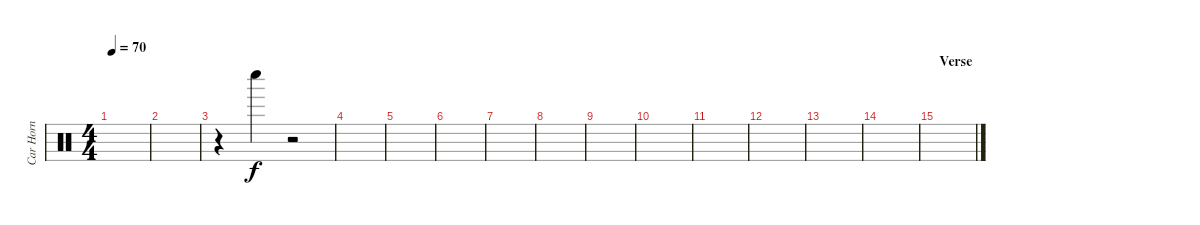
\track ("Car Horn" "Car Horn") {instrument percussion}
\staff {score}
\articulation defaults
\ts (4 4)
\tempo 70
\clef neutral
\ks c
|
|
r.4{volume 9} "Whistle low (hit)".4 r.2 |
|
|
|
|
|
|
|
|
|
|
|
\section ("" "Verse")
